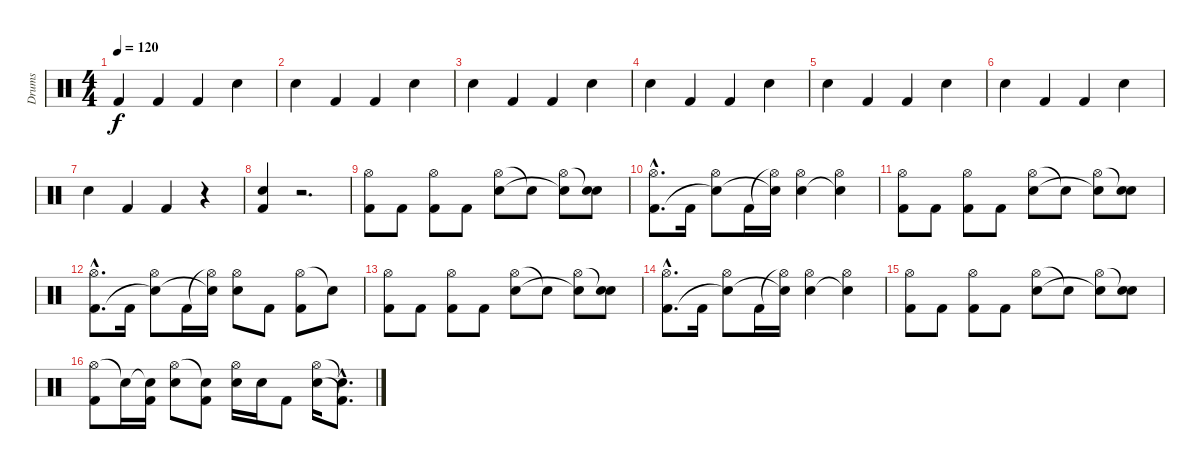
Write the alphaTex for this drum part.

\track ("Drums" "Drums") {instrument percussion}
\staff {score}
\articulation defaults
\ts (4 4)
\tempo 120
\clef neutral
\ks c "Kick (hit) 2".4{dy f} "Kick (hit) 2".4 "Kick (hit) 2".4 "Snare (hit) 2".4
|
"Snare (hit) 2".4 "Kick (hit) 2".4 "Kick (hit) 2".4 "Snare (hit) 2".4 |
"Snare (hit) 2".4 "Kick (hit) 2".4 "Kick (hit) 2".4 "Snare (hit) 2".4 |
"Snare (hit) 2".4 "Kick (hit) 2".4 "Kick (hit) 2".4 "Snare (hit) 2".4 |
"Snare (hit) 2".4 "Kick (hit) 2".4 "Kick (hit) 2".4 "Snare (hit) 2".4 |
"Snare (hit) 2".4 "Kick (hit) 2".4 "Kick (hit) 2".4 "Snare (hit) 2".4 |
"Snare (hit) 2".4 "Kick (hit) 2".4 "Kick (hit) 2".4 r.4 |
("Kick (hit) 2" "Snare (hit) 2").4 r.2{d} |
("Hi-Hat (open)" "Kick (hit) 2").8 "Kick (hit) 2".8 ("Hi-Hat (open)" "Kick (hit) 2").8 "Kick (hit) 2".8 ("Hi-Hat (open)" "Snare (hit) 2").8 "Snare (hit)"{t}.8 ("Hi-Hat (open)" "Snare (hit)"{t}).8 ("Snare (hit)"{t} "Snare (hit) 2").8 |
("Hi-Hat (open)"{hac} "Kick (hit) 2"{hac}).8{d} "Kick (hit) 2".16 ("Hi-Hat (open)" "Snare (hit)"{t}).8 "Kick (hit) 2".16 ("Hi-Hat (open)"{t} "Snare (hit)"{t}).16 ("Hi-Hat (open)" "Snare (hit) 2").4 ("Hi-Hat (open)" "Snare (hit)"{t}).4 |
("Hi-Hat (open)" "Kick (hit) 2").8 "Kick (hit) 2".8 ("Hi-Hat (open)" "Kick (hit) 2").8 "Kick (hit) 2".8 ("Hi-Hat (open)" "Snare (hit) 2").8 "Snare (hit)"{t}.8 ("Hi-Hat (open)" "Snare (hit)"{t}).8 ("Snare (hit)"{t} "Snare (hit) 2").8 |
("Hi-Hat (open)"{hac} "Kick (hit) 2"{hac}).8{d} "Kick (hit) 2".16 ("Hi-Hat (open)" "Snare (hit)"{t}).8 "Kick (hit) 2".16 ("Hi-Hat (open)"{t} "Snare (hit)"{t}).16 ("Hi-Hat (open)" "Snare (hit) 2").8 "Kick (hit) 2".8 ("Hi-Hat (open)" "Kick (hit) 2").8 "Snare (hit)"{t}.8 |
("Hi-Hat (open)" "Kick (hit) 2").8 "Kick (hit) 2".8 ("Hi-Hat (open)" "Kick (hit) 2").8 "Kick (hit) 2".8 ("Hi-Hat (open)" "Snare (hit) 2").8 "Snare (hit)"{t}.8 ("Hi-Hat (open)" "Snare (hit)"{t}).8 ("Snare (hit)"{t} "Snare (hit) 2").8 |
("Hi-Hat (open)"{hac} "Kick (hit) 2"{hac}).8{d} "Kick (hit) 2".16 ("Hi-Hat (open)" "Snare (hit)"{t}).8 "Kick (hit) 2".16 ("Hi-Hat (open)"{t} "Snare (hit)"{t}).16 ("Hi-Hat (open)" "Snare (hit) 2").4 ("Hi-Hat (open)" "Snare (hit)"{t}).4 |
("Hi-Hat (open)" "Kick (hit) 2").8 "Kick (hit) 2".8 ("Hi-Hat (open)" "Kick (hit) 2").8 "Kick (hit) 2".8 ("Hi-Hat (open)" "Snare (hit) 2").8 "Snare (hit)"{t}.8 ("Hi-Hat (open)" "Snare (hit)"{t}).8 ("Snare (hit)"{t} "Snare (hit) 2").8 |
("Hi-Hat (open)" "Kick (hit) 2").8 "Snare (hit)"{t}.16 ("Snare (hit)"{t} "Kick (hit) 2").16 ("Hi-Hat (open)" "Snare (hit) 2").8 ("Snare (hit)"{t} "Kick (hit) 2").8 ("Hi-Hat (open)" "Snare (hit) 2").16 "Snare (hit) 2".16 "Kick (hit) 2".8 ("Hi-Hat (open)" "Snare (hit) 2").16 ("Snare (hit)"{hac t} "Kick (hit) 2"{hac t}).8{d}
